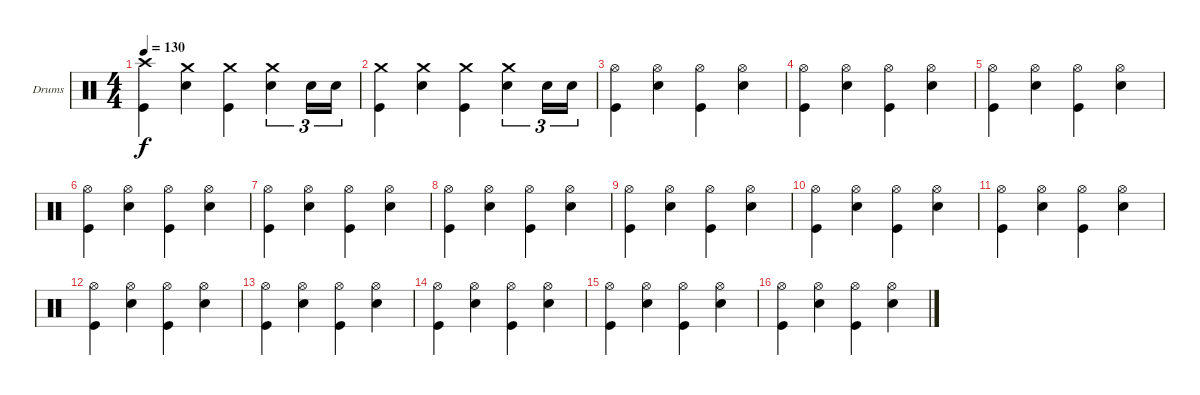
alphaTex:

\defaultSystemsLayout 4
\bracketExtendMode groupsimilarinstruments
\firstSystemTrackNameOrientation horizontal
\otherSystemsTrackNameOrientation horizontal
\track ("Drumkit" "Drums") {instrument percussion}
\staff {score}
\articulation defaults
\ts (4 4)
\tempo 130
\clef neutral
\ks c
("Kick (hit)" "Crash high (hit)").4{dy f} ("Snare (hit) 2" "Crash medium (hit)").4 ("Kick (hit)" "Crash medium (hit)").4 ("Snare (hit) 2" "Crash medium (hit)").4{tu (3 2)} "Snare (hit) 2".16{tu (3 2)} "Snare (hit) 2".16{tu (3 2)} |
("Kick (hit)" "Crash medium (hit)").4 ("Snare (hit) 2" "Crash medium (hit)").4 ("Kick (hit)" "Crash medium (hit)").4 ("Snare (hit) 2" "Crash medium (hit)").4{tu (3 2)} "Snare (hit) 2".16{tu (3 2)} "Snare (hit) 2".16{tu (3 2)} |
("Kick (hit)" "Hi-Hat (open)").4 ("Snare (hit) 2" "Hi-Hat (open)").4 ("Kick (hit)" "Hi-Hat (open)").4 ("Snare (hit) 2" "Hi-Hat (open)").4 |
("Kick (hit)" "Hi-Hat (open)").4 ("Snare (hit) 2" "Hi-Hat (open)").4 ("Kick (hit)" "Hi-Hat (open)").4 ("Snare (hit) 2" "Hi-Hat (open)").4 |
("Hi-Hat (open)" "Kick (hit)").4 ("Snare (hit) 2" "Hi-Hat (open)").4 ("Kick (hit)" "Hi-Hat (open)").4 ("Snare (hit) 2" "Hi-Hat (open)").4 |
("Kick (hit)" "Hi-Hat (open)").4 ("Snare (hit) 2" "Hi-Hat (open)").4 ("Kick (hit)" "Hi-Hat (open)").4 ("Snare (hit) 2" "Hi-Hat (open)").4 |
("Kick (hit)" "Hi-Hat (open)").4 ("Snare (hit) 2" "Hi-Hat (open)").4 ("Kick (hit)" "Hi-Hat (open)").4 ("Snare (hit) 2" "Hi-Hat (open)").4 |
("Kick (hit)" "Hi-Hat (open)").4 ("Snare (hit) 2" "Hi-Hat (open)").4 ("Kick (hit)" "Hi-Hat (open)").4 ("Snare (hit) 2" "Hi-Hat (open)").4 |
("Kick (hit)" "Hi-Hat (open)").4 ("Snare (hit) 2" "Hi-Hat (open)").4 ("Kick (hit)" "Hi-Hat (open)").4 ("Snare (hit) 2" "Hi-Hat (open)").4 |
("Kick (hit)" "Hi-Hat (open)").4 ("Snare (hit) 2" "Hi-Hat (open)").4 ("Kick (hit)" "Hi-Hat (open)").4 ("Snare (hit) 2" "Hi-Hat (open)").4 |
("Kick (hit)" "Hi-Hat (open)").4 ("Snare (hit) 2" "Hi-Hat (open)").4 ("Kick (hit)" "Hi-Hat (open)").4 ("Snare (hit) 2" "Hi-Hat (open)").4 |
("Kick (hit)" "Hi-Hat (open)").4 ("Snare (hit) 2" "Hi-Hat (open)").4 ("Kick (hit)" "Hi-Hat (open)").4 ("Snare (hit) 2" "Hi-Hat (open)").4 |
("Kick (hit)" "Hi-Hat (open)").4 ("Snare (hit) 2" "Hi-Hat (open)").4 ("Kick (hit)" "Hi-Hat (open)").4 ("Snare (hit) 2" "Hi-Hat (open)").4 |
("Kick (hit)" "Hi-Hat (open)").4 ("Snare (hit) 2" "Hi-Hat (open)").4 ("Kick (hit)" "Hi-Hat (open)").4 ("Snare (hit) 2" "Hi-Hat (open)").4 |
("Kick (hit)" "Hi-Hat (open)").4 ("Snare (hit) 2" "Hi-Hat (open)").4 ("Kick (hit)" "Hi-Hat (open)").4 ("Snare (hit) 2" "Hi-Hat (open)").4 |
("Kick (hit)" "Hi-Hat (open)").4 ("Snare (hit) 2" "Hi-Hat (open)").4 ("Kick (hit)" "Hi-Hat (open)").4 ("Snare (hit) 2" "Hi-Hat (open)").4
